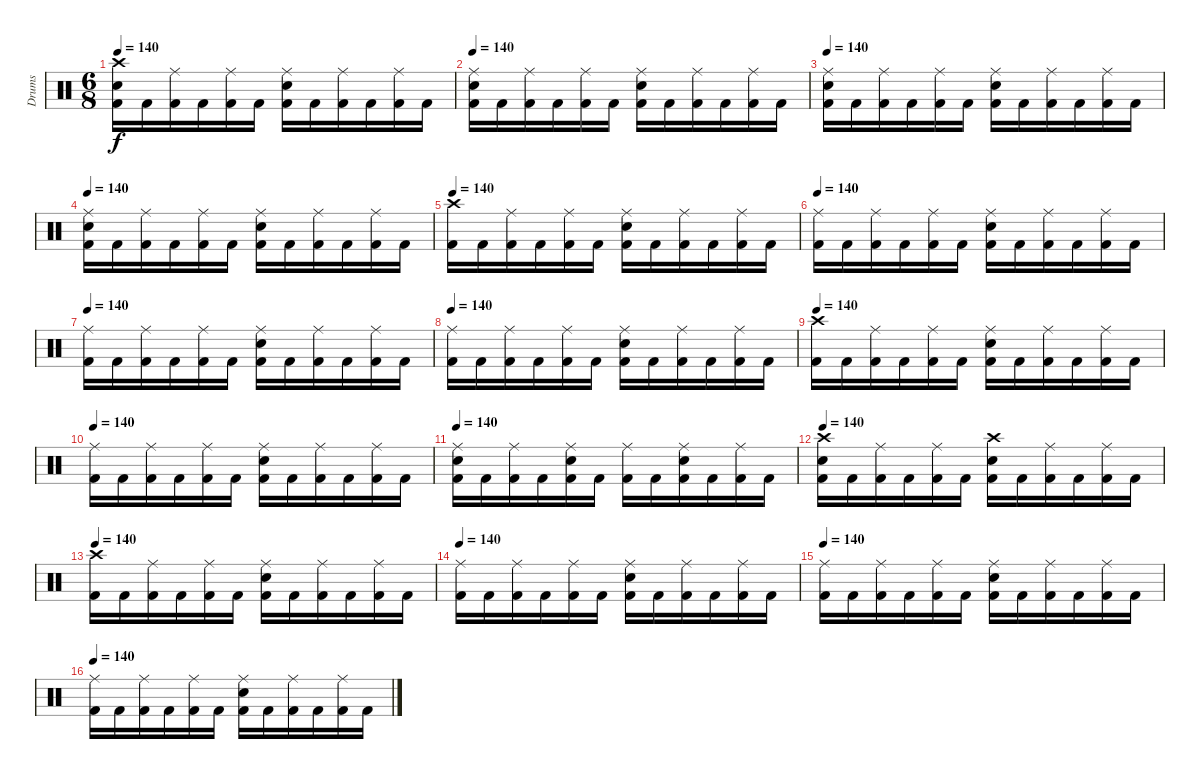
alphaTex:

\track ("Drums" "Drums") {instrument percussion}
\staff {score}
\articulation defaults
\ts (6 8)
\tempo 140
\clef neutral
\ks c
("Kick (hit) 2" "Electric Snare (hit)" "Crash high (hit)").16{dy f} "Kick (hit) 2".16 ("Kick (hit) 2" "Ride (middle)").16 "Kick (hit) 2".16 ("Kick (hit) 2" "Ride (middle)").16 "Kick (hit) 2".16 ("Kick (hit) 2" "Electric Snare (hit)" "Ride (middle)").16 "Kick (hit) 2".16 ("Kick (hit) 2" "Ride (middle)").16 "Kick (hit) 2".16 ("Kick (hit) 2" "Ride (middle)").16 "Kick (hit) 2".16 |
\tempo 140
("Kick (hit) 2" "Electric Snare (hit)" "Ride (middle)").16 "Kick (hit) 2".16 ("Kick (hit) 2" "Ride (middle)").16 "Kick (hit) 2".16 ("Kick (hit) 2" "Ride (middle)").16 "Kick (hit) 2".16 ("Kick (hit) 2" "Electric Snare (hit)" "Ride (middle)").16 "Kick (hit) 2".16 ("Kick (hit) 2" "Ride (middle)").16 "Kick (hit) 2".16 ("Kick (hit) 2" "Ride (middle)").16 "Kick (hit) 2".16 |
\tempo 140
("Kick (hit) 2" "Electric Snare (hit)" "Ride (middle)").16 "Kick (hit) 2".16 ("Kick (hit) 2" "Ride (middle)").16 "Kick (hit) 2".16 ("Kick (hit) 2" "Ride (middle)").16 "Kick (hit) 2".16 ("Kick (hit) 2" "Electric Snare (hit)" "Ride (middle)").16 "Kick (hit) 2".16 ("Kick (hit) 2" "Ride (middle)").16 "Kick (hit) 2".16 ("Kick (hit) 2" "Ride (middle)").16 "Kick (hit) 2".16 |
\tempo 140
("Kick (hit) 2" "Electric Snare (hit)" "Ride (middle)").16 "Kick (hit) 2".16 ("Kick (hit) 2" "Ride (middle)").16 "Kick (hit) 2".16 ("Kick (hit) 2" "Ride (middle)").16 "Kick (hit) 2".16 ("Kick (hit) 2" "Electric Snare (hit)" "Ride (middle)").16 "Kick (hit) 2".16 ("Kick (hit) 2" "Ride (middle)").16 "Kick (hit) 2".16 ("Kick (hit) 2" "Ride (middle)").16 "Kick (hit) 2".16 |
\tempo 140
("Kick (hit) 2" "Crash high (hit)").16 "Kick (hit) 2".16 ("Kick (hit) 2" "Ride (middle)").16 "Kick (hit) 2".16 ("Kick (hit) 2" "Ride (middle)").16 "Kick (hit) 2".16 ("Kick (hit) 2" "Electric Snare (hit)" "Ride (middle)").16 "Kick (hit) 2".16 ("Kick (hit) 2" "Ride (middle)").16 "Kick (hit) 2".16 ("Kick (hit) 2" "Ride (middle)").16 "Kick (hit) 2".16 |
\tempo 140
("Kick (hit) 2" "Ride (middle)").16 "Kick (hit) 2".16 ("Kick (hit) 2" "Ride (middle)").16 "Kick (hit) 2".16 ("Kick (hit) 2" "Ride (middle)").16 "Kick (hit) 2".16 ("Kick (hit) 2" "Electric Snare (hit)" "Ride (middle)").16 "Kick (hit) 2".16 ("Kick (hit) 2" "Ride (middle)").16 "Kick (hit) 2".16 ("Kick (hit) 2" "Ride (middle)").16 "Kick (hit) 2".16 |
\tempo 140
("Kick (hit) 2" "Ride (middle)").16 "Kick (hit) 2".16 ("Kick (hit) 2" "Ride (middle)").16 "Kick (hit) 2".16 ("Kick (hit) 2" "Ride (middle)").16 "Kick (hit) 2".16 ("Kick (hit) 2" "Electric Snare (hit)" "Ride (middle)").16 "Kick (hit) 2".16 ("Kick (hit) 2" "Ride (middle)").16 "Kick (hit) 2".16 ("Kick (hit) 2" "Ride (middle)").16 "Kick (hit) 2".16 |
\tempo 140
("Kick (hit) 2" "Ride (middle)").16 "Kick (hit) 2".16 ("Kick (hit) 2" "Ride (middle)").16 "Kick (hit) 2".16 ("Kick (hit) 2" "Ride (middle)").16 "Kick (hit) 2".16 ("Kick (hit) 2" "Electric Snare (hit)" "Ride (middle)").16 "Kick (hit) 2".16 ("Kick (hit) 2" "Ride (middle)").16 "Kick (hit) 2".16 ("Kick (hit) 2" "Ride (middle)").16 "Kick (hit) 2".16 |
\tempo 140
("Kick (hit) 2" "Crash high (hit)").16 "Kick (hit) 2".16 ("Kick (hit) 2" "Ride (middle)").16 "Kick (hit) 2".16 ("Kick (hit) 2" "Ride (middle)").16 "Kick (hit) 2".16 ("Kick (hit) 2" "Electric Snare (hit)" "Ride (middle)").16 "Kick (hit) 2".16 ("Kick (hit) 2" "Ride (middle)").16 "Kick (hit) 2".16 ("Kick (hit) 2" "Ride (middle)").16 "Kick (hit) 2".16 |
\tempo 140
("Kick (hit) 2" "Ride (middle)").16 "Kick (hit) 2".16 ("Kick (hit) 2" "Ride (middle)").16 "Kick (hit) 2".16 ("Kick (hit) 2" "Ride (middle)").16 "Kick (hit) 2".16 ("Kick (hit) 2" "Electric Snare (hit)" "Ride (middle)").16 "Kick (hit) 2".16 ("Kick (hit) 2" "Ride (middle)").16 "Kick (hit) 2".16 ("Kick (hit) 2" "Ride (middle)").16 "Kick (hit) 2".16 |
\tempo 140
("Kick (hit) 2" "Electric Snare (hit)" "Ride (middle)").16 "Kick (hit) 2".16 ("Kick (hit) 2" "Ride (middle)").16 "Kick (hit) 2".16 ("Kick (hit) 2" "Electric Snare (hit)" "Ride (middle)").16 "Kick (hit) 2".16 ("Kick (hit) 2" "Ride (middle)").16 "Kick (hit) 2".16 ("Kick (hit) 2" "Electric Snare (hit)" "Ride (middle)").16 "Kick (hit) 2".16 ("Kick (hit) 2" "Ride (middle)").16 "Kick (hit) 2".16 |
\tempo 140
("Kick (hit) 2" "Electric Snare (hit)" "Crash high (hit)").16 "Kick (hit) 2".16 ("Kick (hit) 2" "Ride (middle)").16 "Kick (hit) 2".16 ("Kick (hit) 2" "Ride (middle)").16 "Kick (hit) 2".16 ("Kick (hit) 2" "Electric Snare (hit)" "Crash high (hit)").16 "Kick (hit) 2".16 ("Kick (hit) 2" "Ride (middle)").16 "Kick (hit) 2".16 ("Kick (hit) 2" "Ride (middle)").16 "Kick (hit) 2".16 |
\tempo 140
("Kick (hit) 2" "Crash high (hit)").16 "Kick (hit) 2".16 ("Kick (hit) 2" "Ride (middle)").16 "Kick (hit) 2".16 ("Kick (hit) 2" "Ride (middle)").16 "Kick (hit) 2".16 ("Kick (hit) 2" "Electric Snare (hit)" "Ride (middle)").16 "Kick (hit) 2".16 ("Kick (hit) 2" "Ride (middle)").16 "Kick (hit) 2".16 ("Kick (hit) 2" "Ride (middle)").16 "Kick (hit) 2".16 |
\tempo 140
("Kick (hit) 2" "Ride (middle)").16 "Kick (hit) 2".16 ("Kick (hit) 2" "Ride (middle)").16 "Kick (hit) 2".16 ("Kick (hit) 2" "Ride (middle)").16 "Kick (hit) 2".16 ("Kick (hit) 2" "Electric Snare (hit)" "Ride (middle)").16 "Kick (hit) 2".16 ("Kick (hit) 2" "Ride (middle)").16 "Kick (hit) 2".16 ("Kick (hit) 2" "Ride (middle)").16 "Kick (hit) 2".16 |
\tempo 140
("Kick (hit) 2" "Ride (middle)").16 "Kick (hit) 2".16 ("Kick (hit) 2" "Ride (middle)").16 "Kick (hit) 2".16 ("Kick (hit) 2" "Ride (middle)").16 "Kick (hit) 2".16 ("Kick (hit) 2" "Electric Snare (hit)" "Ride (middle)").16 "Kick (hit) 2".16 ("Kick (hit) 2" "Ride (middle)").16 "Kick (hit) 2".16 ("Kick (hit) 2" "Ride (middle)").16 "Kick (hit) 2".16 |
\tempo 140
("Kick (hit) 2" "Ride (middle)").16 "Kick (hit) 2".16 ("Kick (hit) 2" "Ride (middle)").16 "Kick (hit) 2".16 ("Kick (hit) 2" "Ride (middle)").16 "Kick (hit) 2".16 ("Kick (hit) 2" "Electric Snare (hit)" "Ride (middle)").16 "Kick (hit) 2".16 ("Kick (hit) 2" "Ride (middle)").16 "Kick (hit) 2".16 ("Kick (hit) 2" "Ride (middle)").16 "Kick (hit) 2".16
